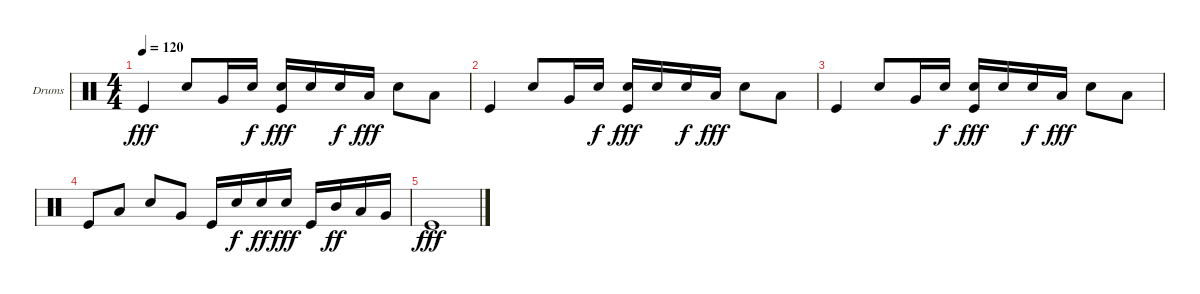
\defaultSystemsLayout 4
\bracketExtendMode groupsimilarinstruments
\firstSystemTrackNameOrientation horizontal
\otherSystemsTrackNameOrientation horizontal
\track ("Пашок" "Drums") {instrument percussion}
\staff {score}
\articulation defaults
\ts (4 4)
\tempo 120
\clef neutral
\ks c "Kick (hit)".4{dy fff} "Snare (hit) 2".8 "Very Low Tom (hit)".16 "Snare (hit) 2".16{dy f}
("Kick (hit)" "Snare (hit) 2").16{dy fff} "Snare (hit) 2".16 "Snare (hit) 2".16{dy f} "Low Tom (hit)".16{dy fff} "Snare (hit) 2".8 "Low Tom (hit)".8 |
"Kick (hit)".4 "Snare (hit) 2".8 "Very Low Tom (hit)".16 "Snare (hit) 2".16{dy f} ("Kick (hit)" "Snare (hit) 2").16{dy fff} "Snare (hit) 2".16 "Snare (hit) 2".16{dy f} "Low Tom (hit)".16{dy fff} "Snare (hit) 2".8 "Low Tom (hit)".8 |
"Kick (hit)".4 "Snare (hit) 2".8 "Very Low Tom (hit)".16 "Snare (hit) 2".16{dy f} ("Kick (hit)" "Snare (hit) 2").16{dy fff} "Snare (hit) 2".16 "Snare (hit) 2".16{dy f} "Low Tom (hit)".16{dy fff} "Snare (hit) 2".8 "Low Tom (hit)".8 |
"Kick (hit)".8 "Low Tom (hit)".8 "Snare (hit) 2".8 "Very Low Tom (hit)".8 "Kick (hit)".16 "Snare (hit) 2".16{dy f} "Snare (hit) 2".16{dy ff} "Snare (hit) 2".16{dy fff} "Kick (hit)".16 "Mid Tom (hit)".16{dy ff} "Low Tom (hit)".16 "Very Low Tom (hit)".16 |
"Kick (hit)".1{dy fff}
